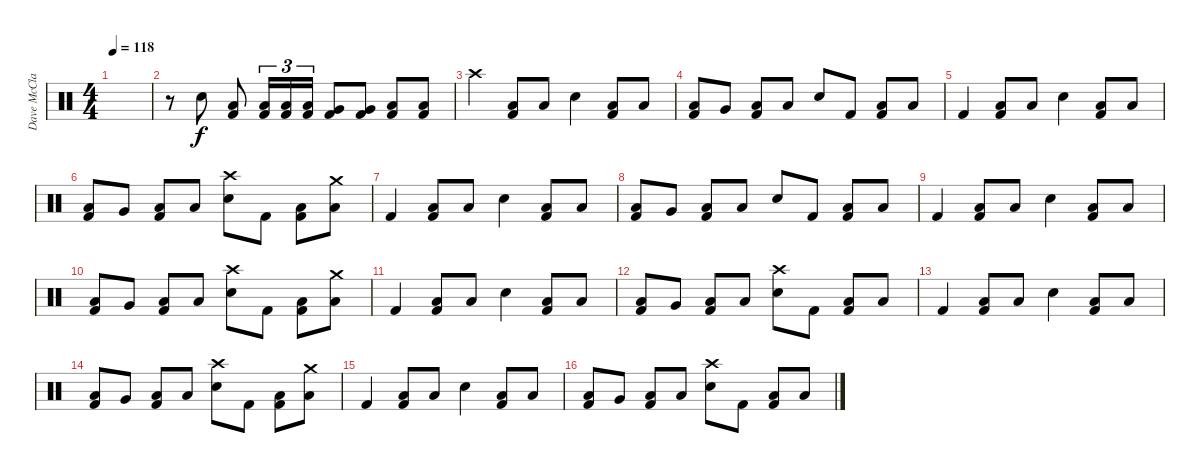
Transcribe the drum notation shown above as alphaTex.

\track ("Dave McClain" "Dave McCla") {instrument percussion}
\staff {score}
\articulation defaults
\ts (4 4)
\tempo 118
\clef neutral
\ks c
|
r.8 "Electric Snare (hit)".8 ("Kick (hit) 2" "Low Floor Tom (hit)").8 ("Kick (hit) 2" "Low Tom (hit)").16{tu (3 2)} ("Kick (hit) 2" "Low Tom (hit)").16{tu (3 2)} ("Kick (hit) 2" "Low Tom (hit)").16{tu (3 2)} ("Kick (hit) 2" "Very Low Tom (hit)").8 ("Kick (hit) 2" "Very Low Tom (hit)").8 ("Kick (hit) 2" "Low Floor Tom (hit)").8 ("Kick (hit) 2" "Low Floor Tom (hit)").8 |
"Crash high (hit)".4 ("Kick (hit) 2" "Low Floor Tom (hit)").8 "Low Floor Tom (hit)".8 "Snare (hit) 2".4 ("Kick (hit) 2" "Low Floor Tom (hit)").8 "Low Floor Tom (hit)".8 |
("Kick (hit) 2" "Low Tom (hit)").8 "Very Low Tom (hit)".8 ("Kick (hit) 2" "Low Floor Tom (hit)").8 "Low Floor Tom (hit)".8 "Snare (hit) 2".8 "Kick (hit) 2".8 ("Kick (hit) 2" "Low Floor Tom (hit)").8 "Low Floor Tom (hit)".8 |
"Kick (hit) 2".4 ("Kick (hit) 2" "Low Floor Tom (hit)").8 "Low Floor Tom (hit)".8 "Snare (hit) 2".4 ("Kick (hit) 2" "Low Floor Tom (hit)").8 "Low Floor Tom (hit)".8 |
("Kick (hit) 2" "Low Tom (hit)").8 "Very Low Tom (hit)".8 ("Kick (hit) 2" "Low Floor Tom (hit)").8 "Low Floor Tom (hit)".8 ("Snare (hit) 2" "Crash high (hit)").8 "Kick (hit) 2".8 ("Kick (hit) 2" "Low Floor Tom (hit)").8 ("Low Floor Tom (hit)" "Crash medium (hit)").8 |
"Kick (hit) 2".4 ("Kick (hit) 2" "Low Floor Tom (hit)").8 "Low Floor Tom (hit)".8 "Snare (hit) 2".4 ("Kick (hit) 2" "Low Floor Tom (hit)").8 "Low Floor Tom (hit)".8 |
("Kick (hit) 2" "Low Tom (hit)").8 "Very Low Tom (hit)".8 ("Kick (hit) 2" "Low Floor Tom (hit)").8 "Low Floor Tom (hit)".8 "Snare (hit) 2".8 "Kick (hit) 2".8 ("Kick (hit) 2" "Low Floor Tom (hit)").8 "Low Floor Tom (hit)".8 |
"Kick (hit) 2".4 ("Kick (hit) 2" "Low Floor Tom (hit)").8 "Low Floor Tom (hit)".8 "Snare (hit) 2".4 ("Kick (hit) 2" "Low Floor Tom (hit)").8 "Low Floor Tom (hit)".8 |
("Kick (hit) 2" "Low Tom (hit)").8 "Very Low Tom (hit)".8 ("Kick (hit) 2" "Low Floor Tom (hit)").8 "Low Floor Tom (hit)".8 ("Snare (hit) 2" "Crash high (hit)").8 "Kick (hit) 2".8 ("Kick (hit) 2" "Low Floor Tom (hit)").8 ("Low Floor Tom (hit)" "Crash medium (hit)").8 |
"Kick (hit) 2".4 ("Kick (hit) 2" "Low Floor Tom (hit)").8 "Low Floor Tom (hit)".8 "Snare (hit) 2".4 ("Kick (hit) 2" "Low Floor Tom (hit)").8 "Low Floor Tom (hit)".8 |
("Kick (hit) 2" "Low Tom (hit)").8 "Very Low Tom (hit)".8 ("Kick (hit) 2" "Low Floor Tom (hit)").8 "Low Floor Tom (hit)".8 ("Snare (hit) 2" "Crash high (hit)").8 "Kick (hit) 2".8 ("Kick (hit) 2" "Low Floor Tom (hit)").8 "Low Floor Tom (hit)".8 |
"Kick (hit) 2".4 ("Kick (hit) 2" "Low Floor Tom (hit)").8 "Low Floor Tom (hit)".8 "Snare (hit) 2".4 ("Kick (hit) 2" "Low Floor Tom (hit)").8 "Low Floor Tom (hit)".8 |
("Kick (hit) 2" "Low Tom (hit)").8 "Very Low Tom (hit)".8 ("Kick (hit) 2" "Low Floor Tom (hit)").8 "Low Floor Tom (hit)".8 ("Snare (hit) 2" "Crash high (hit)").8 "Kick (hit) 2".8 ("Kick (hit) 2" "Low Floor Tom (hit)").8 ("Low Floor Tom (hit)" "Crash medium (hit)").8 |
"Kick (hit) 2".4 ("Kick (hit) 2" "Low Floor Tom (hit)").8 "Low Floor Tom (hit)".8 "Snare (hit) 2".4 ("Kick (hit) 2" "Low Floor Tom (hit)").8 "Low Floor Tom (hit)".8 |
("Kick (hit) 2" "Low Tom (hit)").8 "Very Low Tom (hit)".8 ("Kick (hit) 2" "Low Floor Tom (hit)").8 "Low Floor Tom (hit)".8 ("Snare (hit) 2" "Crash high (hit)").8 "Kick (hit) 2".8 ("Kick (hit) 2" "Low Floor Tom (hit)").8 "Low Floor Tom (hit)".8
